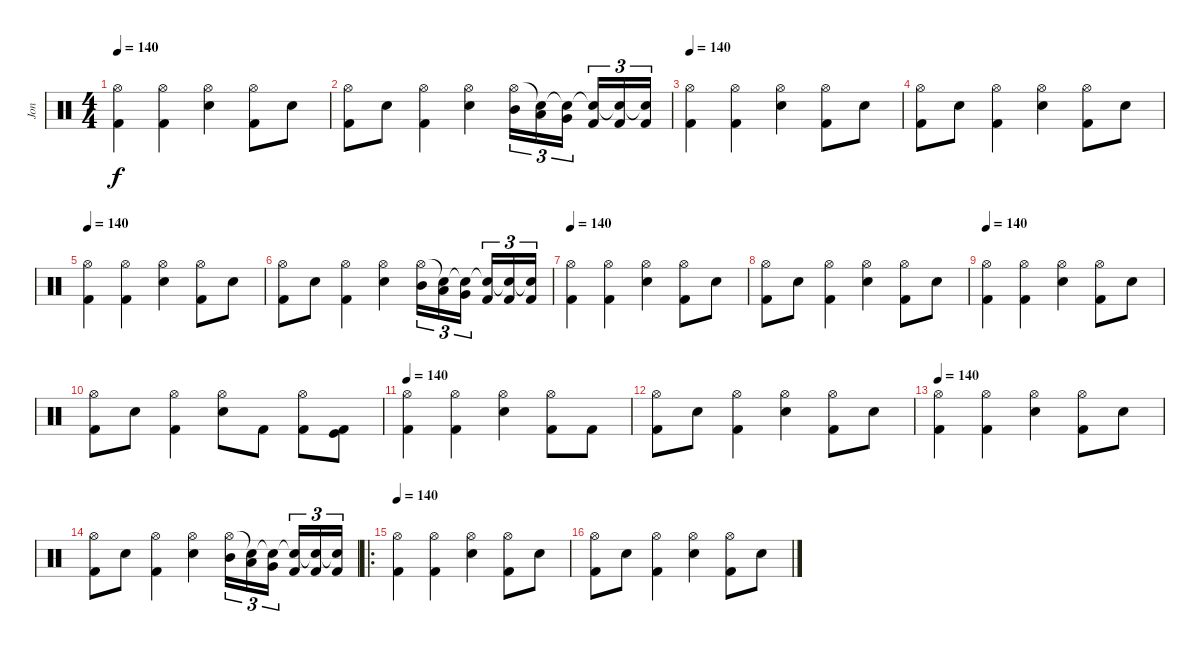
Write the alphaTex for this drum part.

\track ("Jon" "Jon") {instrument percussion}
\staff {score}
\articulation defaults
\ts (4 4)
\tempo 140
\clef neutral
\ks c
("Hi-Hat (open)" "Kick (hit) 2").4{dy f} ("Hi-Hat (open)" "Kick (hit) 2").4 ("Hi-Hat (open)" "Electric Snare (hit)").4 ("Hi-Hat (open)" "Kick (hit) 2").8 "Electric Snare (hit)".8 |
("Hi-Hat (open)" "Kick (hit) 2").8 "Electric Snare (hit)".8 ("Hi-Hat (open)" "Kick (hit) 2").4 ("Hi-Hat (open)" "Electric Snare (hit)").4 ("Hi-Hat (open)" "Mid Tom (hit)").16{tu (3 2)} ("Snare (hit)"{t} "Low Tom (hit)").16{tu (3 2)} ("Snare (hit)"{t} "Very Low Tom (hit)").16{tu (3 2)} ("Snare (hit)"{t} "Kick (hit) 2").16{tu (3 2)} ("Snare (hit)"{t} "Kick (hit) 2").16{tu (3 2)} ("Snare (hit)"{t} "Kick (hit) 2").16{tu (3 2)} |
\tempo 100
\tempo 140
("Hi-Hat (open)" "Kick (hit) 2").4 ("Hi-Hat (open)" "Kick (hit) 2").4 ("Hi-Hat (open)" "Electric Snare (hit)").4 ("Hi-Hat (open)" "Kick (hit) 2").8 "Electric Snare (hit)".8 |
("Hi-Hat (open)" "Kick (hit) 2").8 "Electric Snare (hit)".8 ("Hi-Hat (open)" "Kick (hit) 2").4 ("Hi-Hat (open)" "Electric Snare (hit)").4 ("Hi-Hat (open)" "Kick (hit) 2").8 "Electric Snare (hit)".8 |
\tempo 140
("Hi-Hat (open)" "Kick (hit) 2").4 ("Hi-Hat (open)" "Kick (hit) 2").4 ("Hi-Hat (open)" "Electric Snare (hit)").4 ("Hi-Hat (open)" "Kick (hit) 2").8 "Electric Snare (hit)".8 |
("Hi-Hat (open)" "Kick (hit) 2").8 "Electric Snare (hit)".8 ("Hi-Hat (open)" "Kick (hit) 2").4 ("Hi-Hat (open)" "Electric Snare (hit)").4 ("Hi-Hat (open)" "Mid Tom (hit)").16{tu (3 2)} ("Snare (hit)"{t} "Low Tom (hit)").16{tu (3 2)} ("Snare (hit)"{t} "Very Low Tom (hit)").16{tu (3 2)} ("Snare (hit)"{t} "Kick (hit) 2").16{tu (3 2)} ("Snare (hit)"{t} "Kick (hit) 2").16{tu (3 2)} ("Snare (hit)"{t} "Kick (hit) 2").16{tu (3 2)} |
\tempo 100
\tempo 140
("Hi-Hat (open)" "Kick (hit) 2").4 ("Hi-Hat (open)" "Kick (hit) 2").4 ("Hi-Hat (open)" "Electric Snare (hit)").4 ("Hi-Hat (open)" "Kick (hit) 2").8 "Electric Snare (hit)".8 |
("Hi-Hat (open)" "Kick (hit) 2").8 "Electric Snare (hit)".8 ("Hi-Hat (open)" "Kick (hit) 2").4 ("Hi-Hat (open)" "Electric Snare (hit)").4 ("Hi-Hat (open)" "Kick (hit) 2").8 "Electric Snare (hit)".8 |
\tempo 140
("Hi-Hat (open)" "Kick (hit) 2").4 ("Hi-Hat (open)" "Kick (hit) 2").4 ("Hi-Hat (open)" "Electric Snare (hit)").4 ("Hi-Hat (open)" "Kick (hit) 2").8 "Electric Snare (hit)".8 |
("Hi-Hat (open)" "Kick (hit) 2").8 "Electric Snare (hit)".8 ("Hi-Hat (open)" "Kick (hit) 2").4 ("Hi-Hat (open)" "Electric Snare (hit)").8 "Kick (hit) 2".8 ("Hi-Hat (open)" "Kick (hit) 2").8 ("Kick (hit)" "Kick (hit) 2").8 |
\tempo 100
\tempo 140
("Hi-Hat (open)" "Kick (hit) 2").4 ("Hi-Hat (open)" "Kick (hit) 2").4 ("Hi-Hat (open)" "Electric Snare (hit)").4 ("Hi-Hat (open)" "Kick (hit) 2").8 "Kick (hit) 2".8 |
("Hi-Hat (open)" "Kick (hit) 2").8 "Electric Snare (hit)".8 ("Hi-Hat (open)" "Kick (hit) 2").4 ("Hi-Hat (open)" "Electric Snare (hit)").4 ("Hi-Hat (open)" "Kick (hit) 2").8 "Electric Snare (hit)".8 |
\tempo 140
("Hi-Hat (open)" "Kick (hit) 2").4 ("Hi-Hat (open)" "Kick (hit) 2").4 ("Hi-Hat (open)" "Electric Snare (hit)").4 ("Hi-Hat (open)" "Kick (hit) 2").8 "Electric Snare (hit)".8 |
("Hi-Hat (open)" "Kick (hit) 2").8 "Electric Snare (hit)".8 ("Hi-Hat (open)" "Kick (hit) 2").4 ("Hi-Hat (open)" "Electric Snare (hit)").4 ("Hi-Hat (open)" "Mid Tom (hit)").16{tu (3 2)} ("Snare (hit)"{t} "Low Tom (hit)").16{tu (3 2)} ("Snare (hit)"{t} "Very Low Tom (hit)").16{tu (3 2)} ("Snare (hit)"{t} "Kick (hit) 2").16{tu (3 2)} ("Snare (hit)"{t} "Kick (hit) 2").16{tu (3 2)} ("Snare (hit)"{t} "Kick (hit) 2").16{tu (3 2)} |
\ro
\tempo 100
\tempo 140
("Hi-Hat (open)" "Kick (hit) 2").4 ("Hi-Hat (open)" "Kick (hit) 2").4 ("Hi-Hat (open)" "Electric Snare (hit)").4 ("Hi-Hat (open)" "Kick (hit) 2").8 "Electric Snare (hit)".8 |
("Hi-Hat (open)" "Kick (hit) 2").8 "Electric Snare (hit)".8 ("Hi-Hat (open)" "Kick (hit) 2").4 ("Hi-Hat (open)" "Electric Snare (hit)").4 ("Hi-Hat (open)" "Kick (hit) 2").8 "Electric Snare (hit)".8
